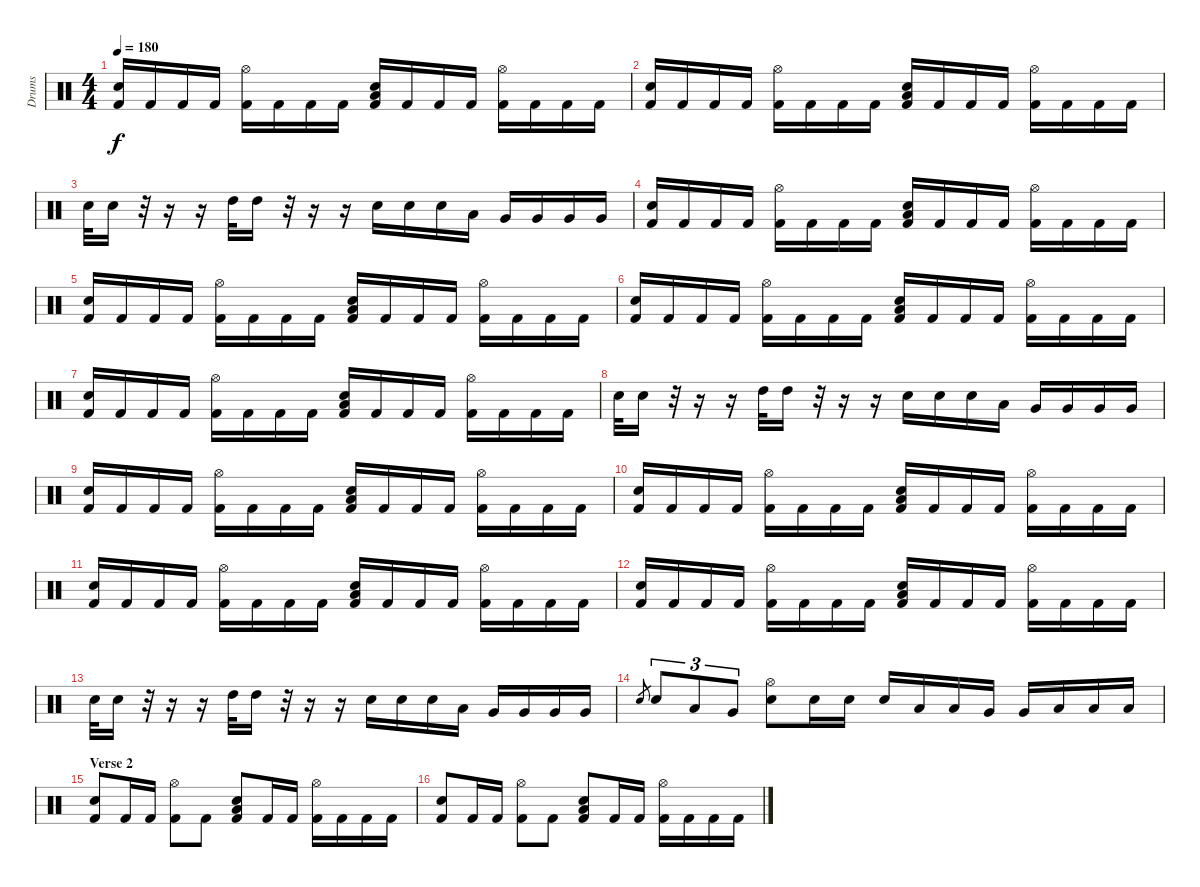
\track ("Drums" "Drums") {instrument percussion}
\staff {score}
\articulation defaults
\ts (4 4)
\tempo 180
\clef neutral
\ks c
("Kick (hit) 2" "Electric Snare (hit)").16{dy f} "Kick (hit) 2".16 "Kick (hit) 2".16 "Kick (hit) 2".16 ("Kick (hit) 2" "Hi-Hat (open)").16 "Kick (hit) 2".16 "Kick (hit) 2".16 "Kick (hit) 2".16 ("Kick (hit) 2" "Low Tom (hit)" "Electric Snare (hit)").16 "Kick (hit) 2".16 "Kick (hit) 2".16 "Kick (hit) 2".16 ("Kick (hit) 2" "Hi-Hat (open)").16 "Kick (hit) 2".16 "Kick (hit) 2".16 "Kick (hit) 2".16 |
("Kick (hit) 2" "Electric Snare (hit)").16 "Kick (hit) 2".16 "Kick (hit) 2".16 "Kick (hit) 2".16 ("Kick (hit) 2" "Hi-Hat (open)").16 "Kick (hit) 2".16 "Kick (hit) 2".16 "Kick (hit) 2".16 ("Kick (hit) 2" "Low Tom (hit)" "Electric Snare (hit)").16 "Kick (hit) 2".16 "Kick (hit) 2".16 "Kick (hit) 2".16 ("Kick (hit) 2" "Hi-Hat (open)").16 "Kick (hit) 2".16 "Kick (hit) 2".16 "Kick (hit) 2".16 |
"Electric Snare (hit)".32 "Electric Snare (hit)".16 r.32 r.16 r.16 "High Tom (hit)".32 "High Tom (hit)".16 r.32 r.16 r.16 "Electric Snare (hit)".16 "Electric Snare (hit)".16 "Electric Snare (hit)".16 "Low Tom (hit)".16 "Very Low Tom (hit)".16 "Very Low Tom (hit)".16 "Very Low Tom (hit)".16 "Very Low Tom (hit)".16 |
("Kick (hit) 2" "Electric Snare (hit)").16 "Kick (hit) 2".16 "Kick (hit) 2".16 "Kick (hit) 2".16 ("Kick (hit) 2" "Hi-Hat (open)").16 "Kick (hit) 2".16 "Kick (hit) 2".16 "Kick (hit) 2".16 ("Kick (hit) 2" "Low Tom (hit)" "Electric Snare (hit)").16 "Kick (hit) 2".16 "Kick (hit) 2".16 "Kick (hit) 2".16 ("Kick (hit) 2" "Hi-Hat (open)").16 "Kick (hit) 2".16 "Kick (hit) 2".16 "Kick (hit) 2".16 |
("Kick (hit) 2" "Electric Snare (hit)").16 "Kick (hit) 2".16 "Kick (hit) 2".16 "Kick (hit) 2".16 ("Kick (hit) 2" "Hi-Hat (open)").16 "Kick (hit) 2".16 "Kick (hit) 2".16 "Kick (hit) 2".16 ("Kick (hit) 2" "Low Tom (hit)" "Electric Snare (hit)").16 "Kick (hit) 2".16 "Kick (hit) 2".16 "Kick (hit) 2".16 ("Kick (hit) 2" "Hi-Hat (open)").16 "Kick (hit) 2".16 "Kick (hit) 2".16 "Kick (hit) 2".16 |
("Kick (hit) 2" "Electric Snare (hit)").16 "Kick (hit) 2".16 "Kick (hit) 2".16 "Kick (hit) 2".16 ("Kick (hit) 2" "Hi-Hat (open)").16 "Kick (hit) 2".16 "Kick (hit) 2".16 "Kick (hit) 2".16 ("Kick (hit) 2" "Low Tom (hit)" "Electric Snare (hit)").16 "Kick (hit) 2".16 "Kick (hit) 2".16 "Kick (hit) 2".16 ("Kick (hit) 2" "Hi-Hat (open)").16 "Kick (hit) 2".16 "Kick (hit) 2".16 "Kick (hit) 2".16 |
("Kick (hit) 2" "Electric Snare (hit)").16 "Kick (hit) 2".16 "Kick (hit) 2".16 "Kick (hit) 2".16 ("Kick (hit) 2" "Hi-Hat (open)").16 "Kick (hit) 2".16 "Kick (hit) 2".16 "Kick (hit) 2".16 ("Kick (hit) 2" "Low Tom (hit)" "Electric Snare (hit)").16 "Kick (hit) 2".16 "Kick (hit) 2".16 "Kick (hit) 2".16 ("Kick (hit) 2" "Hi-Hat (open)").16 "Kick (hit) 2".16 "Kick (hit) 2".16 "Kick (hit) 2".16 |
"Electric Snare (hit)".32 "Electric Snare (hit)".16 r.32 r.16 r.16 "High Tom (hit)".32 "High Tom (hit)".16 r.32 r.16 r.16 "Electric Snare (hit)".16 "Electric Snare (hit)".16 "Electric Snare (hit)".16 "Low Tom (hit)".16 "Very Low Tom (hit)".16 "Very Low Tom (hit)".16 "Very Low Tom (hit)".16 "Very Low Tom (hit)".16 |
("Kick (hit) 2" "Electric Snare (hit)").16 "Kick (hit) 2".16 "Kick (hit) 2".16 "Kick (hit) 2".16 ("Kick (hit) 2" "Hi-Hat (open)").16 "Kick (hit) 2".16 "Kick (hit) 2".16 "Kick (hit) 2".16 ("Kick (hit) 2" "Low Tom (hit)" "Electric Snare (hit)").16 "Kick (hit) 2".16 "Kick (hit) 2".16 "Kick (hit) 2".16 ("Kick (hit) 2" "Hi-Hat (open)").16 "Kick (hit) 2".16 "Kick (hit) 2".16 "Kick (hit) 2".16 |
("Kick (hit) 2" "Electric Snare (hit)").16 "Kick (hit) 2".16 "Kick (hit) 2".16 "Kick (hit) 2".16 ("Kick (hit) 2" "Hi-Hat (open)").16 "Kick (hit) 2".16 "Kick (hit) 2".16 "Kick (hit) 2".16 ("Kick (hit) 2" "Low Tom (hit)" "Electric Snare (hit)").16 "Kick (hit) 2".16 "Kick (hit) 2".16 "Kick (hit) 2".16 ("Kick (hit) 2" "Hi-Hat (open)").16 "Kick (hit) 2".16 "Kick (hit) 2".16 "Kick (hit) 2".16 |
("Kick (hit) 2" "Electric Snare (hit)").16 "Kick (hit) 2".16 "Kick (hit) 2".16 "Kick (hit) 2".16 ("Kick (hit) 2" "Hi-Hat (open)").16 "Kick (hit) 2".16 "Kick (hit) 2".16 "Kick (hit) 2".16 ("Kick (hit) 2" "Low Tom (hit)" "Electric Snare (hit)").16 "Kick (hit) 2".16 "Kick (hit) 2".16 "Kick (hit) 2".16 ("Kick (hit) 2" "Hi-Hat (open)").16 "Kick (hit) 2".16 "Kick (hit) 2".16 "Kick (hit) 2".16 |
("Kick (hit) 2" "Electric Snare (hit)").16 "Kick (hit) 2".16 "Kick (hit) 2".16 "Kick (hit) 2".16 ("Kick (hit) 2" "Hi-Hat (open)").16 "Kick (hit) 2".16 "Kick (hit) 2".16 "Kick (hit) 2".16 ("Kick (hit) 2" "Low Tom (hit)" "Electric Snare (hit)").16 "Kick (hit) 2".16 "Kick (hit) 2".16 "Kick (hit) 2".16 ("Kick (hit) 2" "Hi-Hat (open)").16 "Kick (hit) 2".16 "Kick (hit) 2".16 "Kick (hit) 2".16 |
"Electric Snare (hit)".32 "Electric Snare (hit)".16 r.32 r.16 r.16 "High Tom (hit)".32 "High Tom (hit)".16 r.32 r.16 r.16 "Electric Snare (hit)".16 "Electric Snare (hit)".16 "Electric Snare (hit)".16 "Low Tom (hit)".16 "Very Low Tom (hit)".16 "Very Low Tom (hit)".16 "Very Low Tom (hit)".16 "Very Low Tom (hit)".16 |
"Electric Snare (hit)".8{gr} "Electric Snare (hit)".8{tu (3 2)} "Low Tom (hit)".8{tu (3 2)} "Very Low Tom (hit)".8{tu (3 2)} ("Electric Snare (hit)" "Hi-Hat (open)").8 "Electric Snare (hit)".16 "Electric Snare (hit)".16 "Electric Snare (hit)".16 "Low Tom (hit)".16 "Low Tom (hit)".16 "Very Low Tom (hit)".16 "Very Low Tom (hit)".16 "Low Floor Tom (hit)".16 "Low Floor Tom (hit)".16 "Low Floor Tom (hit)".16 |
\section ("" "Verse 2")
("Kick (hit) 2" "Electric Snare (hit)").8 "Kick (hit) 2".16 "Kick (hit) 2".16 ("Kick (hit) 2" "Hi-Hat (open)").8 "Kick (hit) 2".8 ("Kick (hit) 2" "Low Tom (hit)" "Electric Snare (hit)").8 "Kick (hit) 2".16 "Kick (hit) 2".16 ("Kick (hit) 2" "Hi-Hat (open)").16 "Kick (hit) 2".16 "Kick (hit) 2".16 "Kick (hit) 2".16 |
("Kick (hit) 2" "Electric Snare (hit)").8 "Kick (hit) 2".16 "Kick (hit) 2".16 ("Kick (hit) 2" "Hi-Hat (open)").8 "Kick (hit) 2".8 ("Kick (hit) 2" "Low Tom (hit)" "Electric Snare (hit)").8 "Kick (hit) 2".16 "Kick (hit) 2".16 ("Kick (hit) 2" "Hi-Hat (open)").16 "Kick (hit) 2".16 "Kick (hit) 2".16 "Kick (hit) 2".16
